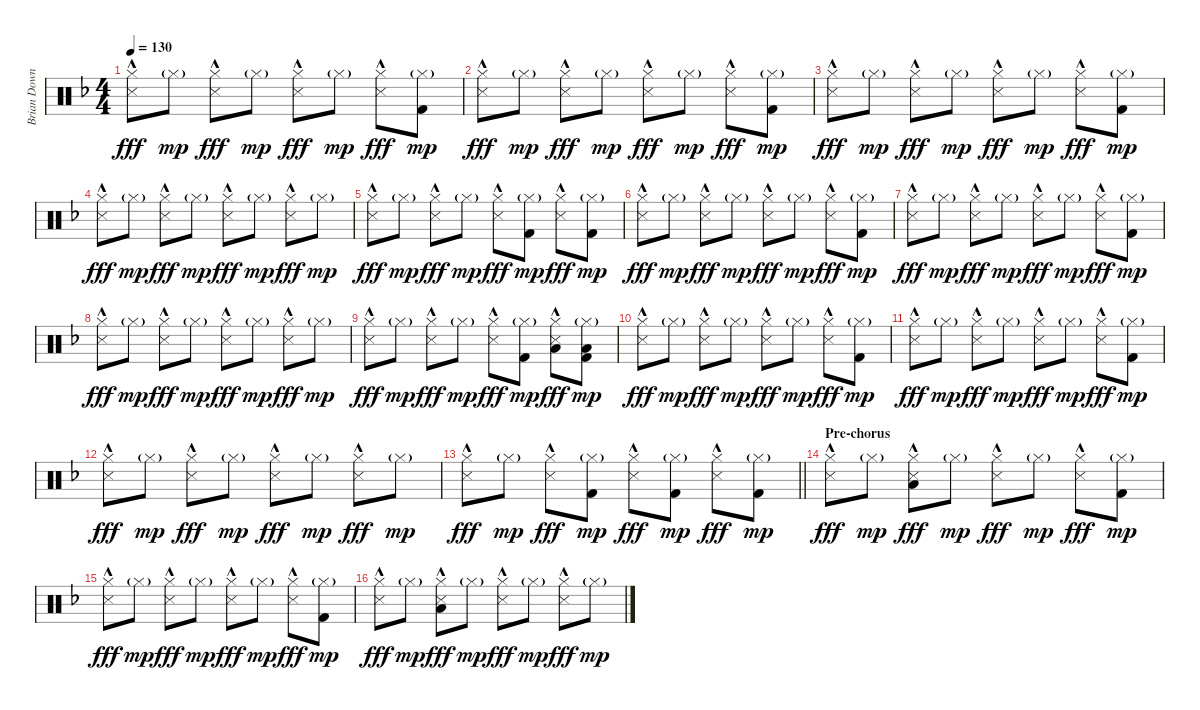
\track ("Brian Downey" "Brian Down") {instrument percussion}
\staff {score}
\articulation defaults
\ts (4 4)
\tempo 130
\clef neutral
\ks dminor
("Hi-Hat (closed)" "Metronome (hit)"{hac}).8{dy fff} "Hi-Hat (closed)"{g}.8{dy mp} ("Hi-Hat (closed)" "Metronome (hit)"{hac}).8{dy fff} "Hi-Hat (closed)"{g}.8{dy mp} ("Hi-Hat (closed)" "Metronome (hit)"{hac}).8{dy fff} "Hi-Hat (closed)"{g}.8{dy mp} ("Hi-Hat (closed)" "Metronome (hit)"{hac}).8{dy fff} ("Hi-Hat (closed)"{g} "Kick (hit) 2").8{dy mp} |
("Hi-Hat (closed)" "Metronome (hit)"{hac}).8{dy fff} "Hi-Hat (closed)"{g}.8{dy mp} ("Hi-Hat (closed)" "Metronome (hit)"{hac}).8{dy fff} "Hi-Hat (closed)"{g}.8{dy mp} ("Hi-Hat (closed)" "Metronome (hit)"{hac}).8{dy fff} "Hi-Hat (closed)"{g}.8{dy mp} ("Hi-Hat (closed)" "Metronome (hit)"{hac}).8{dy fff} ("Hi-Hat (closed)"{g} "Kick (hit) 2").8{dy mp} |
("Hi-Hat (closed)" "Metronome (hit)"{hac}).8{dy fff} "Hi-Hat (closed)"{g}.8{dy mp} ("Hi-Hat (closed)" "Metronome (hit)"{hac}).8{dy fff} "Hi-Hat (closed)"{g}.8{dy mp} ("Hi-Hat (closed)" "Metronome (hit)"{hac}).8{dy fff} "Hi-Hat (closed)"{g}.8{dy mp} ("Hi-Hat (closed)" "Metronome (hit)"{hac}).8{dy fff} ("Hi-Hat (closed)"{g} "Kick (hit) 2").8{dy mp} |
("Hi-Hat (closed)" "Metronome (hit)"{hac}).8{dy fff} "Hi-Hat (closed)"{g}.8{dy mp} ("Hi-Hat (closed)" "Metronome (hit)"{hac}).8{dy fff} "Hi-Hat (closed)"{g}.8{dy mp} ("Hi-Hat (closed)" "Metronome (hit)"{hac}).8{dy fff} "Hi-Hat (closed)"{g}.8{dy mp} ("Hi-Hat (closed)" "Metronome (hit)"{hac}).8{dy fff} "Hi-Hat (closed)"{g}.8{dy mp} |
("Hi-Hat (closed)" "Metronome (hit)"{hac}).8{dy fff} "Hi-Hat (closed)"{g}.8{dy mp} ("Hi-Hat (closed)" "Metronome (hit)"{hac}).8{dy fff} "Hi-Hat (closed)"{g}.8{dy mp} ("Hi-Hat (closed)" "Metronome (hit)"{hac}).8{dy fff} ("Hi-Hat (closed)"{g} "Kick (hit) 2").8{dy mp} ("Hi-Hat (closed)" "Metronome (hit)"{hac}).8{dy fff} ("Hi-Hat (closed)"{g} "Kick (hit) 2").8{dy mp} |
("Hi-Hat (closed)" "Metronome (hit)"{hac}).8{dy fff} "Hi-Hat (closed)"{g}.8{dy mp} ("Hi-Hat (closed)" "Metronome (hit)"{hac}).8{dy fff} "Hi-Hat (closed)"{g}.8{dy mp} ("Hi-Hat (closed)" "Metronome (hit)"{hac}).8{dy fff} "Hi-Hat (closed)"{g}.8{dy mp} ("Hi-Hat (closed)" "Metronome (hit)"{hac}).8{dy fff} ("Hi-Hat (closed)"{g} "Kick (hit) 2").8{dy mp} |
("Hi-Hat (closed)" "Metronome (hit)"{hac}).8{dy fff} "Hi-Hat (closed)"{g}.8{dy mp} ("Hi-Hat (closed)" "Metronome (hit)"{hac}).8{dy fff} "Hi-Hat (closed)"{g}.8{dy mp} ("Hi-Hat (closed)" "Metronome (hit)"{hac}).8{dy fff} "Hi-Hat (closed)"{g}.8{dy mp} ("Hi-Hat (closed)" "Metronome (hit)"{hac}).8{dy fff} ("Hi-Hat (closed)"{g} "Kick (hit) 2").8{dy mp} |
("Hi-Hat (closed)" "Metronome (hit)"{hac}).8{dy fff} "Hi-Hat (closed)"{g}.8{dy mp} ("Hi-Hat (closed)" "Metronome (hit)"{hac}).8{dy fff} "Hi-Hat (closed)"{g}.8{dy mp} ("Hi-Hat (closed)" "Metronome (hit)"{hac}).8{dy fff} "Hi-Hat (closed)"{g}.8{dy mp} ("Hi-Hat (closed)" "Metronome (hit)"{hac}).8{dy fff} "Hi-Hat (closed)"{g}.8{dy mp} |
("Hi-Hat (closed)" "Metronome (hit)"{hac}).8{dy fff} "Hi-Hat (closed)"{g}.8{dy mp} ("Hi-Hat (closed)" "Metronome (hit)"{hac}).8{dy fff} "Hi-Hat (closed)"{g}.8{dy mp} ("Hi-Hat (closed)" "Metronome (hit)"{hac}).8{dy fff} ("Hi-Hat (closed)"{g} "Kick (hit) 2").8{dy mp} ("Hi-Hat (closed)" "Low Tom (hit)" "Metronome (hit)"{hac}).8{dy fff} ("Hi-Hat (closed)"{g} "Low Tom (hit)" "Kick (hit) 2").8{dy mp} |
("Hi-Hat (closed)" "Metronome (hit)"{hac}).8{dy fff} "Hi-Hat (closed)"{g}.8{dy mp} ("Hi-Hat (closed)" "Metronome (hit)"{hac}).8{dy fff} "Hi-Hat (closed)"{g}.8{dy mp} ("Hi-Hat (closed)" "Metronome (hit)"{hac}).8{dy fff} "Hi-Hat (closed)"{g}.8{dy mp} ("Hi-Hat (closed)" "Metronome (hit)"{hac}).8{dy fff} ("Hi-Hat (closed)"{g} "Kick (hit) 2").8{dy mp} |
("Hi-Hat (closed)" "Metronome (hit)"{hac}).8{dy fff} "Hi-Hat (closed)"{g}.8{dy mp} ("Hi-Hat (closed)" "Metronome (hit)"{hac}).8{dy fff} "Hi-Hat (closed)"{g}.8{dy mp} ("Hi-Hat (closed)" "Metronome (hit)"{hac}).8{dy fff} "Hi-Hat (closed)"{g}.8{dy mp} ("Hi-Hat (closed)" "Metronome (hit)"{hac}).8{dy fff} ("Hi-Hat (closed)"{g} "Kick (hit) 2").8{dy mp} |
("Hi-Hat (closed)" "Metronome (hit)"{hac}).8{dy fff} "Hi-Hat (closed)"{g}.8{dy mp} ("Hi-Hat (closed)" "Metronome (hit)"{hac}).8{dy fff} "Hi-Hat (closed)"{g}.8{dy mp} ("Hi-Hat (closed)" "Metronome (hit)"{hac}).8{dy fff} "Hi-Hat (closed)"{g}.8{dy mp} ("Hi-Hat (closed)" "Metronome (hit)"{hac}).8{dy fff} "Hi-Hat (closed)"{g}.8{dy mp} |
\barLineRight lightlight
("Hi-Hat (closed)" "Metronome (hit)"{hac}).8{dy fff} "Hi-Hat (closed)"{g}.8{dy mp} ("Hi-Hat (closed)" "Metronome (hit)"{hac}).8{dy fff} ("Hi-Hat (closed)"{g} "Kick (hit) 2").8{dy mp} ("Hi-Hat (closed)" "Metronome (hit)"{hac}).8{dy fff} ("Hi-Hat (closed)"{g} "Kick (hit) 2").8{dy mp} ("Hi-Hat (closed)" "Metronome (hit)"{hac}).8{dy fff} ("Hi-Hat (closed)"{g} "Kick (hit) 2").8{dy mp} |
\section ("" "Pre-chorus")
("Hi-Hat (closed)" "Metronome (hit)"{hac}).8{dy fff} "Hi-Hat (closed)"{g}.8{dy mp} ("Hi-Hat (closed)" "Low Tom (hit)" "Metronome (hit)"{hac}).8{dy fff} "Hi-Hat (closed)"{g}.8{dy mp} ("Hi-Hat (closed)" "Metronome (hit)"{hac}).8{dy fff} "Hi-Hat (closed)"{g}.8{dy mp} ("Hi-Hat (closed)" "Metronome (hit)"{hac}).8{dy fff} ("Hi-Hat (closed)"{g} "Kick (hit) 2").8{dy mp} |
("Hi-Hat (closed)" "Metronome (hit)"{hac}).8{dy fff} "Hi-Hat (closed)"{g}.8{dy mp} ("Hi-Hat (closed)" "Metronome (hit)"{hac}).8{dy fff} "Hi-Hat (closed)"{g}.8{dy mp} ("Hi-Hat (closed)" "Metronome (hit)"{hac}).8{dy fff} "Hi-Hat (closed)"{g}.8{dy mp} ("Hi-Hat (closed)" "Metronome (hit)"{hac}).8{dy fff} ("Hi-Hat (closed)"{g} "Kick (hit) 2").8{dy mp} |
("Hi-Hat (closed)" "Metronome (hit)"{hac}).8{dy fff} "Hi-Hat (closed)"{g}.8{dy mp} ("Hi-Hat (closed)" "Low Tom (hit)" "Metronome (hit)"{hac}).8{dy fff} "Hi-Hat (closed)"{g}.8{dy mp} ("Hi-Hat (closed)" "Metronome (hit)"{hac}).8{dy fff} "Hi-Hat (closed)"{g}.8{dy mp} ("Hi-Hat (closed)" "Metronome (hit)"{hac}).8{dy fff} "Hi-Hat (closed)"{g}.8{dy mp}
